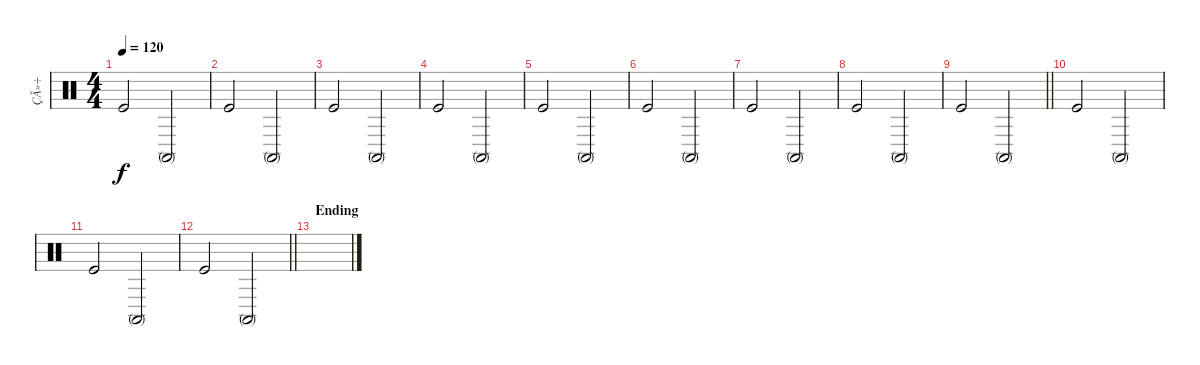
\track ("ÇĂ»÷" "ÇĂ»÷") {instrument percussion}
\staff {score}
\articulation defaults
\ts (4 4)
\tempo 120
\clef neutral
\ks c "Kick (hit)".2{dy f} "Conga high (mute)".2
|
"Kick (hit)".2 "Conga high (mute)".2 |
"Kick (hit)".2 "Conga high (mute)".2 |
"Kick (hit)".2 "Conga high (mute)".2 |
"Kick (hit)".2 "Conga high (mute)".2 |
"Kick (hit)".2 "Conga high (mute)".2 |
"Kick (hit)".2 "Conga high (mute)".2 |
"Kick (hit)".2 "Conga high (mute)".2 |
\barLineRight lightlight "Kick (hit)".2 "Conga high (mute)".2
|
\section ("" "")
"Kick (hit)".2 "Conga high (mute)".2 |
"Kick (hit)".2 "Conga high (mute)".2 |
\barLineRight lightlight "Kick (hit)".2 "Conga high (mute)".2
|
\section ("" "Ending")
